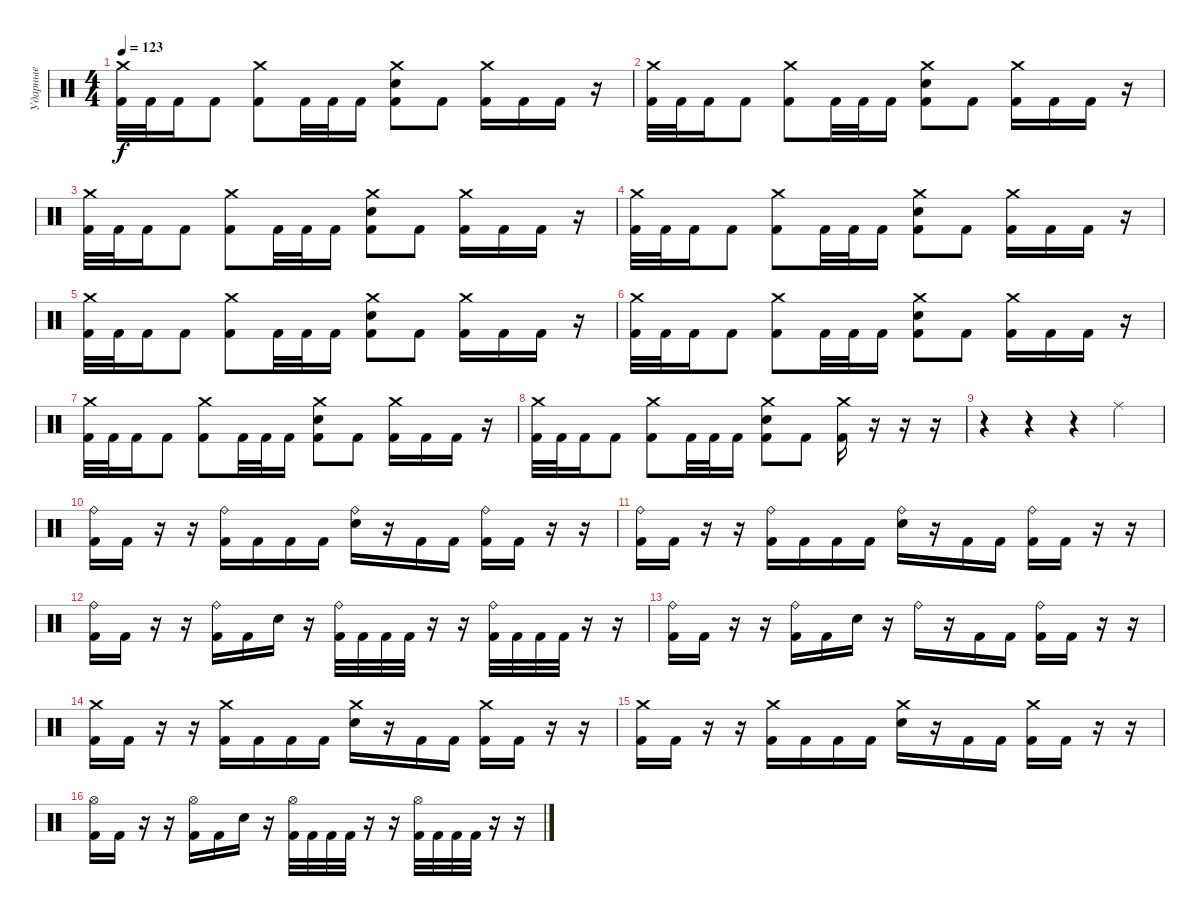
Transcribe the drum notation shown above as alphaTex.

\track ("Ударные" "Ударные") {instrument percussion}
\staff {score}
\articulation defaults
\ts (4 4)
\tempo 123
\clef neutral
\ks c
("Crash medium (hit)" "Kick (hit) 2").32{dy f} "Kick (hit) 2".32 "Kick (hit) 2".16 "Kick (hit) 2".8 ("Crash medium (hit)" "Kick (hit) 2").8 "Kick (hit) 2".32 "Kick (hit) 2".32 "Kick (hit) 2".16 ("Crash medium (hit)" "Electric Snare (hit)" "Kick (hit) 2").8 "Kick (hit) 2".8 ("Crash medium (hit)" "Kick (hit) 2").16 "Kick (hit) 2".16 "Kick (hit) 2".16 r.16 |
("Crash medium (hit)" "Kick (hit) 2").32 "Kick (hit) 2".32 "Kick (hit) 2".16 "Kick (hit) 2".8 ("Crash medium (hit)" "Kick (hit) 2").8 "Kick (hit) 2".32 "Kick (hit) 2".32 "Kick (hit) 2".16 ("Crash medium (hit)" "Electric Snare (hit)" "Kick (hit) 2").8 "Kick (hit) 2".8 ("Crash medium (hit)" "Kick (hit) 2").16 "Kick (hit) 2".16 "Kick (hit) 2".16 r.16 |
("Crash medium (hit)" "Kick (hit) 2").32 "Kick (hit) 2".32 "Kick (hit) 2".16 "Kick (hit) 2".8 ("Crash medium (hit)" "Kick (hit) 2").8 "Kick (hit) 2".32 "Kick (hit) 2".32 "Kick (hit) 2".16 ("Crash medium (hit)" "Electric Snare (hit)" "Kick (hit) 2").8 "Kick (hit) 2".8 ("Crash medium (hit)" "Kick (hit) 2").16 "Kick (hit) 2".16 "Kick (hit) 2".16 r.16 |
("Crash medium (hit)" "Kick (hit) 2").32 "Kick (hit) 2".32 "Kick (hit) 2".16 "Kick (hit) 2".8 ("Crash medium (hit)" "Kick (hit) 2").8 "Kick (hit) 2".32 "Kick (hit) 2".32 "Kick (hit) 2".16 ("Crash medium (hit)" "Electric Snare (hit)" "Kick (hit) 2").8 "Kick (hit) 2".8 ("Crash medium (hit)" "Kick (hit) 2").16 "Kick (hit) 2".16 "Kick (hit) 2".16 r.16 |
("Crash medium (hit)" "Kick (hit) 2").32 "Kick (hit) 2".32 "Kick (hit) 2".16 "Kick (hit) 2".8 ("Crash medium (hit)" "Kick (hit) 2").8 "Kick (hit) 2".32 "Kick (hit) 2".32 "Kick (hit) 2".16 ("Crash medium (hit)" "Electric Snare (hit)" "Kick (hit) 2").8 "Kick (hit) 2".8 ("Crash medium (hit)" "Kick (hit) 2").16 "Kick (hit) 2".16 "Kick (hit) 2".16 r.16 |
("Crash medium (hit)" "Kick (hit) 2").32 "Kick (hit) 2".32 "Kick (hit) 2".16 "Kick (hit) 2".8 ("Crash medium (hit)" "Kick (hit) 2").8 "Kick (hit) 2".32 "Kick (hit) 2".32 "Kick (hit) 2".16 ("Crash medium (hit)" "Electric Snare (hit)" "Kick (hit) 2").8 "Kick (hit) 2".8 ("Crash medium (hit)" "Kick (hit) 2").16 "Kick (hit) 2".16 "Kick (hit) 2".16 r.16 |
("Crash medium (hit)" "Kick (hit) 2").32 "Kick (hit) 2".32 "Kick (hit) 2".16 "Kick (hit) 2".8 ("Crash medium (hit)" "Kick (hit) 2").8 "Kick (hit) 2".32 "Kick (hit) 2".32 "Kick (hit) 2".16 ("Crash medium (hit)" "Electric Snare (hit)" "Kick (hit) 2").8 "Kick (hit) 2".8 ("Crash medium (hit)" "Kick (hit) 2").16 "Kick (hit) 2".16 "Kick (hit) 2".16 r.16 |
("Crash medium (hit)" "Kick (hit) 2").32 "Kick (hit) 2".32 "Kick (hit) 2".16 "Kick (hit) 2".8 ("Crash medium (hit)" "Kick (hit) 2").8 "Kick (hit) 2".32 "Kick (hit) 2".32 "Kick (hit) 2".16 ("Electric Snare (hit)" "Crash medium (hit)" "Kick (hit) 2").8 "Kick (hit) 2".8 ("Crash medium (hit)" "Kick (hit) 2").16 r.16 r.16 r.16 |
r.4 r.4 r.4 "Ride (middle)".4 |
("Ride (bell)" "Kick (hit) 2").16 "Kick (hit) 2".16 r.16 r.16 ("Ride (bell)" "Kick (hit) 2").16 "Kick (hit) 2".16 "Kick (hit) 2".16 "Kick (hit) 2".16 ("Ride (bell)" "Electric Snare (hit)").16 r.16 "Kick (hit) 2".16 "Kick (hit) 2".16 ("Ride (bell)" "Kick (hit) 2").16 "Kick (hit) 2".16 r.16 r.16 |
("Ride (bell)" "Kick (hit) 2").16 "Kick (hit) 2".16 r.16 r.16 ("Ride (bell)" "Kick (hit) 2").16 "Kick (hit) 2".16 "Kick (hit) 2".16 "Kick (hit) 2".16 ("Ride (bell)" "Electric Snare (hit)").16 r.16 "Kick (hit) 2".16 "Kick (hit) 2".16 ("Ride (bell)" "Kick (hit) 2").16 "Kick (hit) 2".16 r.16 r.16 |
("Ride (bell)" "Kick (hit) 2").16 "Kick (hit) 2".16 r.16 r.16 ("Ride (bell)" "Kick (hit) 2").16 "Kick (hit) 2".16 "Electric Snare (hit)".16 r.16 ("Ride (bell)" "Kick (hit) 2").32 "Kick (hit) 2".32 "Kick (hit) 2".32 "Kick (hit) 2".32 r.16 r.16 ("Ride (bell)" "Kick (hit) 2").32 "Kick (hit) 2".32 "Kick (hit) 2".32 "Kick (hit) 2".32 r.16 r.16 |
("Ride (bell)" "Kick (hit) 2").16 "Kick (hit) 2".16 r.16 r.16 ("Ride (bell)" "Kick (hit) 2").16 "Kick (hit) 2".16 "Electric Snare (hit)".16 r.16 "Ride (bell)".16 r.16 "Kick (hit) 2".16 "Kick (hit) 2".16 ("Ride (bell)" "Kick (hit) 2").16 "Kick (hit) 2".16 r.16 r.16 |
("Crash medium (hit)" "Kick (hit) 2").16 "Kick (hit) 2".16 r.16 r.16 ("Crash medium (hit)" "Kick (hit) 2").16 "Kick (hit) 2".16 "Kick (hit) 2".16 "Kick (hit) 2".16 ("Crash medium (hit)" "Electric Snare (hit)").16 r.16 "Kick (hit) 2".16 "Kick (hit) 2".16 ("Crash medium (hit)" "Kick (hit) 2").16 "Kick (hit) 2".16 r.16 r.16 |
("Crash medium (hit)" "Kick (hit) 2").16 "Kick (hit) 2".16 r.16 r.16 ("Crash medium (hit)" "Kick (hit) 2").16 "Kick (hit) 2".16 "Kick (hit) 2".16 "Kick (hit) 2".16 ("Crash medium (hit)" "Electric Snare (hit)").16 r.16 "Kick (hit) 2".16 "Kick (hit) 2".16 ("Crash medium (hit)" "Kick (hit) 2").16 "Kick (hit) 2".16 r.16 r.16 |
("Hi-Hat (open)" "Kick (hit) 2").16 "Kick (hit) 2".16 r.16 r.16 ("Hi-Hat (open)" "Kick (hit) 2").16 "Kick (hit) 2".16 "Electric Snare (hit)".16 r.16 ("Hi-Hat (open)" "Kick (hit) 2").32 "Kick (hit) 2".32 "Kick (hit) 2".32 "Kick (hit) 2".32 r.16 r.16 ("Hi-Hat (open)" "Kick (hit) 2").32 "Kick (hit) 2".32 "Kick (hit) 2".32 "Kick (hit) 2".32 r.16 r.16
